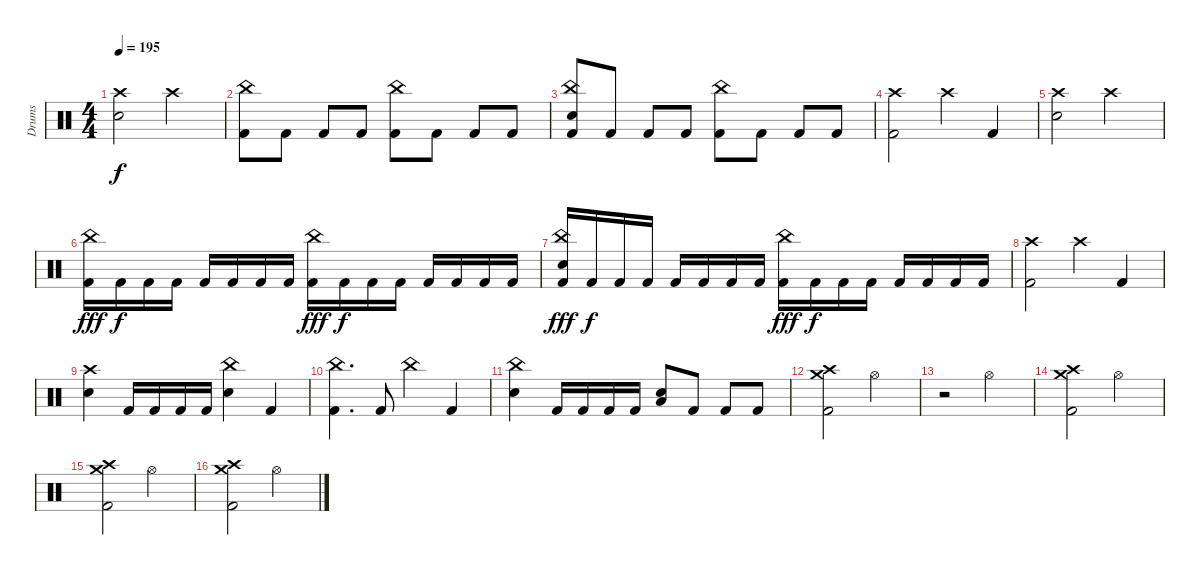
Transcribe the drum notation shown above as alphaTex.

\track ("Drums" "Drums") {instrument percussion}
\staff {score}
\articulation defaults
\ts (4 4)
\tempo 195
\clef neutral
\ks c
("Crash high (hit)" "Snare (hit) 2").2{dy f} "Crash high (hit)".2 |
("China (hit)" "Kick (hit) 2").8 "Kick (hit) 2".8 "Kick (hit) 2".8 "Kick (hit) 2".8 ("China (hit)" "Kick (hit) 2").8 "Kick (hit) 2".8 "Kick (hit) 2".8 "Kick (hit) 2".8 |
("China (hit)" "Snare (hit) 2" "Kick (hit) 2").8 "Kick (hit) 2".8 "Kick (hit) 2".8 "Kick (hit) 2".8 ("China (hit)" "Kick (hit) 2").8 "Kick (hit) 2".8 "Kick (hit) 2".8 "Kick (hit) 2".8 |
("Crash high (hit)" "Kick (hit) 2").2 "Crash high (hit)".4 "Kick (hit) 2".4 |
("Crash high (hit)" "Snare (hit) 2").2 "Crash high (hit)".2 |
("China (hit)" "Kick (hit) 2").16{dy fff} "Kick (hit) 2".16{dy f} "Kick (hit) 2".16 "Kick (hit) 2".16 "Kick (hit) 2".16 "Kick (hit) 2".16 "Kick (hit) 2".16 "Kick (hit) 2".16 ("China (hit)" "Kick (hit) 2").16{dy fff} "Kick (hit) 2".16{dy f} "Kick (hit) 2".16 "Kick (hit) 2".16 "Kick (hit) 2".16 "Kick (hit) 2".16 "Kick (hit) 2".16 "Kick (hit) 2".16 |
("China (hit)" "Snare (hit) 2" "Kick (hit) 2").16{dy fff} "Kick (hit) 2".16{dy f} "Kick (hit) 2".16 "Kick (hit) 2".16 "Kick (hit) 2".16 "Kick (hit) 2".16 "Kick (hit) 2".16 "Kick (hit) 2".16 ("China (hit)" "Kick (hit) 2").16{dy fff} "Kick (hit) 2".16{dy f} "Kick (hit) 2".16 "Kick (hit) 2".16 "Kick (hit) 2".16 "Kick (hit) 2".16 "Kick (hit) 2".16 "Kick (hit) 2".16 |
("Crash high (hit)" "Kick (hit) 2").2 "Crash high (hit)".4 "Kick (hit) 2".4 |
("Crash high (hit)" "Snare (hit) 2").4 "Kick (hit) 2".16 "Kick (hit) 2".16 "Kick (hit) 2".16 "Kick (hit) 2".16 ("China (hit)" "Snare (hit) 2").4 "Kick (hit) 2".4 |
("China (hit)" "Kick (hit) 2").4{d} "Kick (hit) 2".8 "China (hit)".4 "Kick (hit) 2".4 |
("China (hit)" "Snare (hit) 2").4 "Kick (hit) 2".16 "Kick (hit) 2".16 "Kick (hit) 2".16 "Kick (hit) 2".16 ("Low Floor Tom (hit)" "Snare (hit) 2").8 "Kick (hit) 2".8 "Kick (hit) 2".8 "Kick (hit) 2".8 |
("Crash high (hit)" "Crash medium (hit)" "Kick (hit) 2").2 "Hi-Hat (open)".2 |
r.2 "Hi-Hat (open)".2 |
("Crash high (hit)" "Crash medium (hit)" "Kick (hit) 2").2 "Hi-Hat (open)".2 |
("Crash high (hit)" "Crash medium (hit)" "Kick (hit) 2").2 "Hi-Hat (open)".2 |
("Crash high (hit)" "Crash medium (hit)" "Kick (hit) 2").2 "Hi-Hat (open)".2
